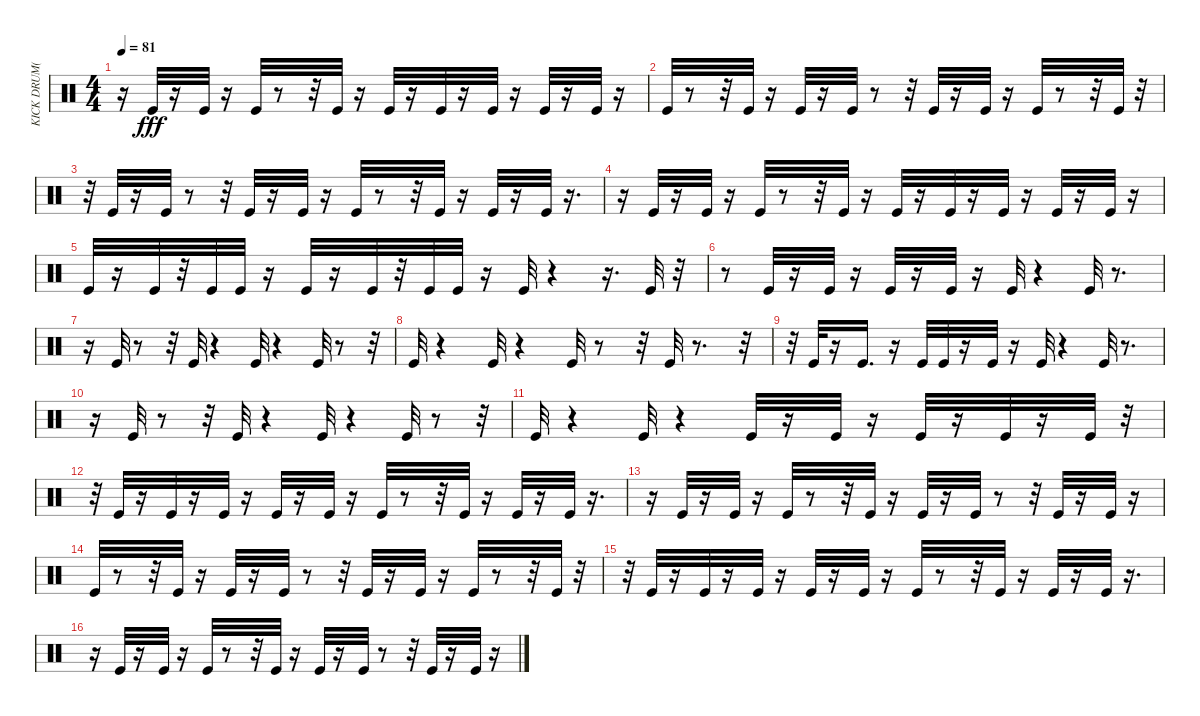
\track ("KICK DRUM(ACOU)" "KICK DRUM(") {instrument percussion}
\staff {score}
\articulation defaults
\ts (4 4)
\tempo 81
\clef neutral
\ks c
r.16{dy fff} "Kick (hit)".32 r.16 "Kick (hit)".32 r.16 "Kick (hit)".32 r.8 r.32 "Kick (hit)".32 r.16 "Kick (hit)".32 r.16 "Kick (hit)".32 r.16 "Kick (hit)".32 r.16 "Kick (hit)".32 r.16 "Kick (hit)".32 r.16 |
"Kick (hit)".32 r.8 r.32 "Kick (hit)".32 r.16 "Kick (hit)".32 r.16 "Kick (hit)".32 r.8 r.32 "Kick (hit)".32 r.16 "Kick (hit)".32 r.16 "Kick (hit)".32 r.8 r.32 "Kick (hit)".32 r.32 |
r.32 "Kick (hit)".32 r.16 "Kick (hit)".32 r.8 r.32 "Kick (hit)".32 r.16 "Kick (hit)".32 r.16 "Kick (hit)".32 r.8 r.32 "Kick (hit)".32 r.16 "Kick (hit)".32 r.16 "Kick (hit)".32 r.16{d} |
r.16 "Kick (hit)".32 r.16 "Kick (hit)".32 r.16 "Kick (hit)".32 r.8 r.32 "Kick (hit)".32 r.16 "Kick (hit)".32 r.16 "Kick (hit)".32 r.16 "Kick (hit)".32 r.16 "Kick (hit)".32 r.16 "Kick (hit)".32 r.16 |
"Kick (hit)".32 r.16 "Kick (hit)".32 r.32 "Kick (hit)".32 "Kick (hit)".32 r.16 "Kick (hit)".32 r.16 "Kick (hit)".32 r.32 "Kick (hit)".32 "Kick (hit)".32 r.16 "Kick (hit)".32 r.4 r.16{d} "Kick (hit)".32 r.32 |
r.8 "Kick (hit)".32 r.16 "Kick (hit)".32 r.16 "Kick (hit)".32 r.16 "Kick (hit)".32 r.16 "Kick (hit)".32 r.4 "Kick (hit)".32 r.8{d} |
r.16 "Kick (hit)".32 r.8 r.32 "Kick (hit)".32 r.4 "Kick (hit)".32 r.4 "Kick (hit)".32 r.8 r.32 |
"Kick (hit)".32 r.4 "Kick (hit)".32 r.4 "Kick (hit)".32 r.8 r.32 "Kick (hit)".32 r.8{d} r.32 |
r.32 "Kick (hit)".32 r.16 "Kick (hit)".16{d} r.16 "Kick (hit)".32 "Kick (hit)".32 r.16 "Kick (hit)".32 r.16 "Kick (hit)".32 r.4 "Kick (hit)".32 r.8{d} |
r.16 "Kick (hit)".32 r.8 r.32 "Kick (hit)".32 r.4 "Kick (hit)".32 r.4 "Kick (hit)".32 r.8 r.32 |
"Kick (hit)".32 r.4 "Kick (hit)".32 r.4 "Kick (hit)".32 r.16 "Kick (hit)".32 r.16 "Kick (hit)".32 r.16 "Kick (hit)".32 r.16 "Kick (hit)".32 r.32 |
r.32 "Kick (hit)".32 r.16 "Kick (hit)".32 r.16 "Kick (hit)".32 r.16 "Kick (hit)".32 r.16 "Kick (hit)".32 r.16 "Kick (hit)".32 r.8 r.32 "Kick (hit)".32 r.16 "Kick (hit)".32 r.16 "Kick (hit)".32 r.16{d} |
r.16 "Kick (hit)".32 r.16 "Kick (hit)".32 r.16 "Kick (hit)".32 r.8 r.32 "Kick (hit)".32 r.16 "Kick (hit)".32 r.16 "Kick (hit)".32 r.8 r.32 "Kick (hit)".32 r.16 "Kick (hit)".32 r.16 |
"Kick (hit)".32 r.8 r.32 "Kick (hit)".32 r.16 "Kick (hit)".32 r.16 "Kick (hit)".32 r.8 r.32 "Kick (hit)".32 r.16 "Kick (hit)".32 r.16 "Kick (hit)".32 r.8 r.32 "Kick (hit)".32 r.32 |
r.32 "Kick (hit)".32 r.16 "Kick (hit)".32 r.16 "Kick (hit)".32 r.16 "Kick (hit)".32 r.16 "Kick (hit)".32 r.16 "Kick (hit)".32 r.8 r.32 "Kick (hit)".32 r.16 "Kick (hit)".32 r.16 "Kick (hit)".32 r.16{d} |
r.16 "Kick (hit)".32 r.16 "Kick (hit)".32 r.16 "Kick (hit)".32 r.8 r.32 "Kick (hit)".32 r.16 "Kick (hit)".32 r.16 "Kick (hit)".32 r.8 r.32 "Kick (hit)".32 r.16 "Kick (hit)".32 r.16
